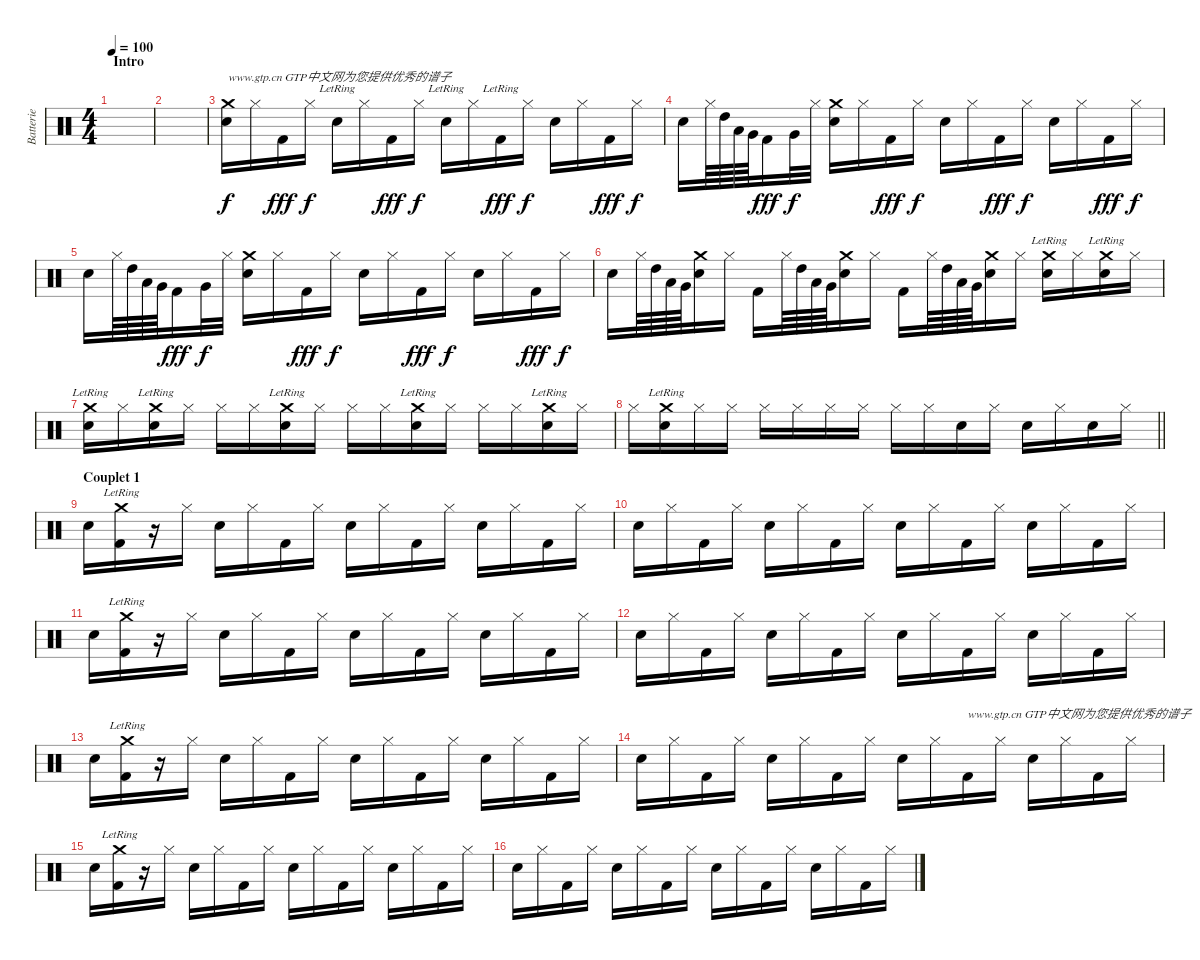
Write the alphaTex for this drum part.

\track ("Batterie" "Batterie") {instrument percussion}
\staff {score}
\articulation defaults
\ts (4 4)
\section ("" "Intro")
\tempo 100
\clef neutral
\ks c
|
|
("Crash medium (hit)" "Electric Snare (hit)").16{txt "www.gtp.cn GTP中文网为您提供优秀的谱子"} "Hi-Hat (closed)".16 "Kick (hit) 2".16{dy fff} "Hi-Hat (closed)".16{dy f} "Electric Snare (hit)"{lr}.16 "Hi-Hat (closed)".16 "Kick (hit) 2".16{dy fff} "Hi-Hat (closed)".16{dy f} "Electric Snare (hit)"{lr}.16 "Hi-Hat (closed)".16 "Kick (hit) 2"{lr}.16{dy fff} "Hi-Hat (closed)".16{dy f} "Electric Snare (hit)".16 "Hi-Hat (closed)".16 "Kick (hit) 2".16{dy fff} "Hi-Hat (closed)".16{dy f} |
"Electric Snare (hit)".16 "Hi-Hat (closed)".64 "High Tom (hit)".64 "Low Tom (hit)".64 "Very Low Tom (hit)".64 "Kick (hit) 2".16{dy fff} "Very Low Tom (hit)".32{dy f} "Hi-Hat (closed)".32 ("Crash medium (hit)" "Electric Snare (hit)").16 "Hi-Hat (closed)".16 "Kick (hit) 2".16{dy fff} "Hi-Hat (closed)".16{dy f} "Electric Snare (hit)".16 "Hi-Hat (closed)".16 "Kick (hit) 2".16{dy fff} "Hi-Hat (closed)".16{dy f} "Electric Snare (hit)".16 "Hi-Hat (closed)".16 "Kick (hit) 2".16{dy fff} "Hi-Hat (closed)".16{dy f} |
"Electric Snare (hit)".16 "Hi-Hat (closed)".64 "High Tom (hit)".64 "Low Tom (hit)".64 "Very Low Tom (hit)".64 "Kick (hit) 2".16{dy fff} "Very Low Tom (hit)".32{dy f} "Hi-Hat (closed)".32 ("Crash medium (hit)" "Electric Snare (hit)").16 "Hi-Hat (closed)".16 "Kick (hit) 2".16{dy fff} "Hi-Hat (closed)".16{dy f} "Electric Snare (hit)".16 "Hi-Hat (closed)".16 "Kick (hit) 2".16{dy fff} "Hi-Hat (closed)".16{dy f} "Electric Snare (hit)".16 "Hi-Hat (closed)".16 "Kick (hit) 2".16{dy fff} "Hi-Hat (closed)".16{dy f} |
"Electric Snare (hit)".16 "Hi-Hat (closed)".64 "High Tom (hit)".64 "Low Tom (hit)".64 "Very Low Tom (hit)".64 ("Crash medium (hit)" "Electric Snare (hit)").16 "Hi-Hat (closed)".16 "Kick (hit) 2".16 "Hi-Hat (closed)".64 "High Tom (hit)".64 "Low Tom (hit)".64 "Very Low Tom (hit)".64 ("Crash medium (hit)" "Electric Snare (hit)").16 "Hi-Hat (closed)".16 "Kick (hit) 2".16 "Hi-Hat (closed)".64 "High Tom (hit)".64 "Low Tom (hit)".64 "Very Low Tom (hit)".64 ("Crash medium (hit)" "Electric Snare (hit)").16 "Hi-Hat (closed)".16 ("Crash medium (hit)"{lr} "Electric Snare (hit)").16 "Hi-Hat (closed)".16 ("Crash medium (hit)"{lr} "Electric Snare (hit)").16 "Hi-Hat (closed)".16 |
("Crash medium (hit)"{lr} "Electric Snare (hit)").16 "Hi-Hat (closed)".16 ("Crash medium (hit)"{lr} "Electric Snare (hit)").16 "Hi-Hat (closed)".16 "Hi-Hat (closed)".16 "Hi-Hat (closed)".16 ("Crash medium (hit)"{lr} "Electric Snare (hit)").16 "Hi-Hat (closed)".16 "Hi-Hat (closed)".16 "Hi-Hat (closed)".16 ("Crash medium (hit)"{lr} "Electric Snare (hit)").16 "Hi-Hat (closed)".16 "Hi-Hat (closed)".16 "Hi-Hat (closed)".16 ("Crash medium (hit)"{lr} "Electric Snare (hit)").16 "Hi-Hat (closed)".16 |
\barLineRight lightlight "Hi-Hat (closed)".16
("Crash medium (hit)"{lr} "Electric Snare (hit)").16 "Hi-Hat (closed)".16 "Hi-Hat (closed)".16 "Hi-Hat (closed)".16 "Hi-Hat (closed)".16 "Hi-Hat (closed)".16 "Hi-Hat (closed)".16 "Hi-Hat (closed)".16 "Hi-Hat (closed)".16 "Electric Snare (hit)".16 "Hi-Hat (closed)".16 "Electric Snare (hit)".16 "Hi-Hat (closed)".16 "Electric Snare (hit)".16 "Hi-Hat (closed)".16 |
\section ("" "Couplet 1")
"Electric Snare (hit)".16 ("Crash medium (hit)"{lr} "Kick (hit) 2").16 r.16 "Hi-Hat (closed)".16 "Electric Snare (hit)".16 "Hi-Hat (closed)".16 "Kick (hit) 2".16 "Hi-Hat (closed)".16 "Electric Snare (hit)".16 "Hi-Hat (closed)".16 "Kick (hit) 2".16 "Hi-Hat (closed)".16 "Electric Snare (hit)".16 "Hi-Hat (closed)".16 "Kick (hit) 2".16 "Hi-Hat (closed)".16 |
"Electric Snare (hit)".16 "Hi-Hat (closed)".16 "Kick (hit) 2".16 "Hi-Hat (closed)".16 "Electric Snare (hit)".16 "Hi-Hat (closed)".16 "Kick (hit) 2".16 "Hi-Hat (closed)".16 "Electric Snare (hit)".16 "Hi-Hat (closed)".16 "Kick (hit) 2".16 "Hi-Hat (closed)".16 "Electric Snare (hit)".16 "Hi-Hat (closed)".16 "Kick (hit) 2".16 "Hi-Hat (closed)".16 |
"Electric Snare (hit)".16 ("Crash medium (hit)"{lr} "Kick (hit) 2").16 r.16 "Hi-Hat (closed)".16 "Electric Snare (hit)".16 "Hi-Hat (closed)".16 "Kick (hit) 2".16 "Hi-Hat (closed)".16 "Electric Snare (hit)".16 "Hi-Hat (closed)".16 "Kick (hit) 2".16 "Hi-Hat (closed)".16 "Electric Snare (hit)".16 "Hi-Hat (closed)".16 "Kick (hit) 2".16 "Hi-Hat (closed)".16 |
"Electric Snare (hit)".16 "Hi-Hat (closed)".16 "Kick (hit) 2".16 "Hi-Hat (closed)".16 "Electric Snare (hit)".16 "Hi-Hat (closed)".16 "Kick (hit) 2".16 "Hi-Hat (closed)".16 "Electric Snare (hit)".16 "Hi-Hat (closed)".16 "Kick (hit) 2".16 "Hi-Hat (closed)".16 "Electric Snare (hit)".16 "Hi-Hat (closed)".16 "Kick (hit) 2".16 "Hi-Hat (closed)".16 |
"Electric Snare (hit)".16 ("Crash medium (hit)"{lr} "Kick (hit) 2").16 r.16 "Hi-Hat (closed)".16 "Electric Snare (hit)".16 "Hi-Hat (closed)".16 "Kick (hit) 2".16 "Hi-Hat (closed)".16 "Electric Snare (hit)".16 "Hi-Hat (closed)".16 "Kick (hit) 2".16 "Hi-Hat (closed)".16 "Electric Snare (hit)".16 "Hi-Hat (closed)".16 "Kick (hit) 2".16 "Hi-Hat (closed)".16 |
"Electric Snare (hit)".16 "Hi-Hat (closed)".16 "Kick (hit) 2".16 "Hi-Hat (closed)".16 "Electric Snare (hit)".16 "Hi-Hat (closed)".16 "Kick (hit) 2".16 "Hi-Hat (closed)".16 "Electric Snare (hit)".16 "Hi-Hat (closed)".16 "Kick (hit) 2".16{txt "www.gtp.cn GTP中文网为您提供优秀的谱子"} "Hi-Hat (closed)".16 "Electric Snare (hit)".16 "Hi-Hat (closed)".16 "Kick (hit) 2".16 "Hi-Hat (closed)".16 |
"Electric Snare (hit)".16 ("Crash medium (hit)"{lr} "Kick (hit) 2").16 r.16 "Hi-Hat (closed)".16 "Electric Snare (hit)".16 "Hi-Hat (closed)".16 "Kick (hit) 2".16 "Hi-Hat (closed)".16 "Electric Snare (hit)".16 "Hi-Hat (closed)".16 "Kick (hit) 2".16 "Hi-Hat (closed)".16 "Electric Snare (hit)".16 "Hi-Hat (closed)".16 "Kick (hit) 2".16 "Hi-Hat (closed)".16 |
"Electric Snare (hit)".16 "Hi-Hat (closed)".16 "Kick (hit) 2".16 "Hi-Hat (closed)".16 "Electric Snare (hit)".16 "Hi-Hat (closed)".16 "Kick (hit) 2".16 "Hi-Hat (closed)".16 "Electric Snare (hit)".16 "Hi-Hat (closed)".16 "Kick (hit) 2".16 "Hi-Hat (closed)".16 "Electric Snare (hit)".16 "Hi-Hat (closed)".16 "Kick (hit) 2".16 "Hi-Hat (closed)".16
